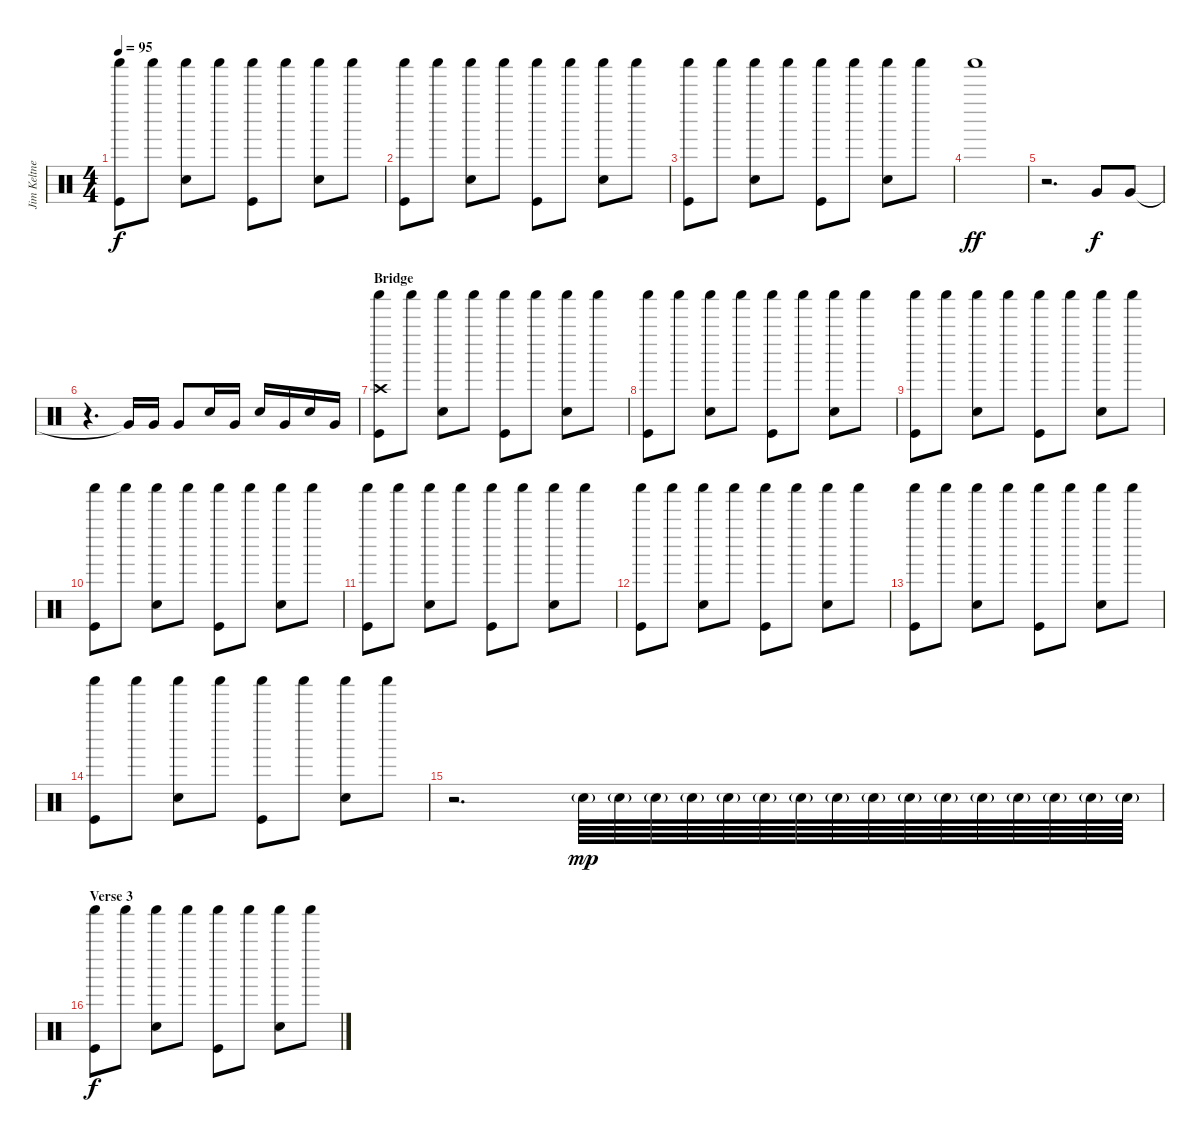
\track ("Jim Keltner" "Jim Keltne") {instrument percussion}
\staff {score}
\articulation defaults
\ts (4 4)
\tempo 95
\clef neutral
\ks c
("Shaker (hit)" "Kick (hit)").8{dy f} "Shaker (hit)".8 ("Shaker (hit)" "Snare (hit) 2").8 "Shaker (hit)".8 ("Shaker (hit)" "Kick (hit)").8 "Shaker (hit)".8 ("Shaker (hit)" "Snare (hit) 2").8 "Shaker (hit)".8 |
("Shaker (hit)" "Kick (hit)").8 "Shaker (hit)".8 ("Shaker (hit)" "Snare (hit) 2").8 "Shaker (hit)".8 ("Shaker (hit)" "Kick (hit)").8 "Shaker (hit)".8 ("Shaker (hit)" "Snare (hit) 2").8 "Shaker (hit)".8 |
("Shaker (hit)" "Kick (hit)").8 "Shaker (hit)".8 ("Shaker (hit)" "Snare (hit) 2").8 "Shaker (hit)".8 ("Shaker (hit)" "Kick (hit)").8 "Shaker (hit)".8 ("Shaker (hit)" "Snare (hit) 2").8 "Shaker (hit)".8 |
"Shaker (hit)".1{dy ff} |
r.2{d} "Very Low Tom (hit)".8{dy f} "Very Low Tom (hit)".8 |
r.4{d} "Very Low Tom (hit)"{t}.16 "Very Low Tom (hit)".16 "Very Low Tom (hit)".8 "Snare (hit) 2".16 "Very Low Tom (hit)".16 "Snare (hit) 2".16 "Very Low Tom (hit)".16 "Snare (hit) 2".16 "Very Low Tom (hit)".16 |
\section ("" "Bridge")
("Shaker (hit)" "Crash high (hit)" "Kick (hit)").8 "Shaker (hit)".8 ("Shaker (hit)" "Snare (hit) 2").8 "Shaker (hit)".8 ("Shaker (hit)" "Kick (hit)").8 "Shaker (hit)".8 ("Shaker (hit)" "Snare (hit) 2").8 "Shaker (hit)".8 |
("Shaker (hit)" "Kick (hit)").8 "Shaker (hit)".8 ("Shaker (hit)" "Snare (hit) 2").8 "Shaker (hit)".8 ("Shaker (hit)" "Kick (hit)").8 "Shaker (hit)".8 ("Shaker (hit)" "Snare (hit) 2").8 "Shaker (hit)".8 |
("Shaker (hit)" "Kick (hit)").8 "Shaker (hit)".8 ("Shaker (hit)" "Snare (hit) 2").8 "Shaker (hit)".8 ("Shaker (hit)" "Kick (hit)").8 "Shaker (hit)".8 ("Shaker (hit)" "Snare (hit) 2").8 "Shaker (hit)".8 |
("Shaker (hit)" "Kick (hit)").8 "Shaker (hit)".8 ("Shaker (hit)" "Snare (hit) 2").8 "Shaker (hit)".8 ("Shaker (hit)" "Kick (hit)").8 "Shaker (hit)".8 ("Shaker (hit)" "Snare (hit) 2").8 "Shaker (hit)".8 |
("Shaker (hit)" "Kick (hit)").8 "Shaker (hit)".8 ("Shaker (hit)" "Snare (hit) 2").8 "Shaker (hit)".8 ("Shaker (hit)" "Kick (hit)").8 "Shaker (hit)".8 ("Shaker (hit)" "Snare (hit) 2").8 "Shaker (hit)".8 |
("Shaker (hit)" "Kick (hit)").8 "Shaker (hit)".8 ("Shaker (hit)" "Snare (hit) 2").8 "Shaker (hit)".8 ("Shaker (hit)" "Kick (hit)").8 "Shaker (hit)".8 ("Shaker (hit)" "Snare (hit) 2").8 "Shaker (hit)".8 |
("Shaker (hit)" "Kick (hit)").8 "Shaker (hit)".8 ("Shaker (hit)" "Snare (hit) 2").8 "Shaker (hit)".8 ("Shaker (hit)" "Kick (hit)").8 "Shaker (hit)".8 ("Shaker (hit)" "Snare (hit) 2").8 "Shaker (hit)".8 |
("Shaker (hit)" "Kick (hit)").8 "Shaker (hit)".8 ("Shaker (hit)" "Snare (hit) 2").8 "Shaker (hit)".8 ("Shaker (hit)" "Kick (hit)").8 "Shaker (hit)".8 ("Shaker (hit)" "Snare (hit) 2").8 "Shaker (hit)".8 |
r.2{d} "Snare (hit) 2"{g}.64{dy mp} "Snare (hit) 2"{g}.64 "Snare (hit) 2"{g}.64 "Snare (hit) 2"{g}.64 "Snare (hit) 2"{g}.64 "Snare (hit) 2"{g}.64 "Snare (hit) 2"{g}.64 "Snare (hit) 2"{g}.64 "Snare (hit) 2"{g}.64 "Snare (hit) 2"{g}.64 "Snare (hit) 2"{g}.64 "Snare (hit) 2"{g}.64 "Snare (hit) 2"{g}.64 "Snare (hit) 2"{g}.64 "Snare (hit) 2"{g}.64 "Snare (hit) 2"{g}.64 |
\section ("" "Verse 3")
("Shaker (hit)" "Kick (hit)").8{dy f} "Shaker (hit)".8 ("Shaker (hit)" "Snare (hit) 2").8 "Shaker (hit)".8 ("Shaker (hit)" "Kick (hit)").8 "Shaker (hit)".8 ("Shaker (hit)" "Snare (hit) 2").8 "Shaker (hit)".8
